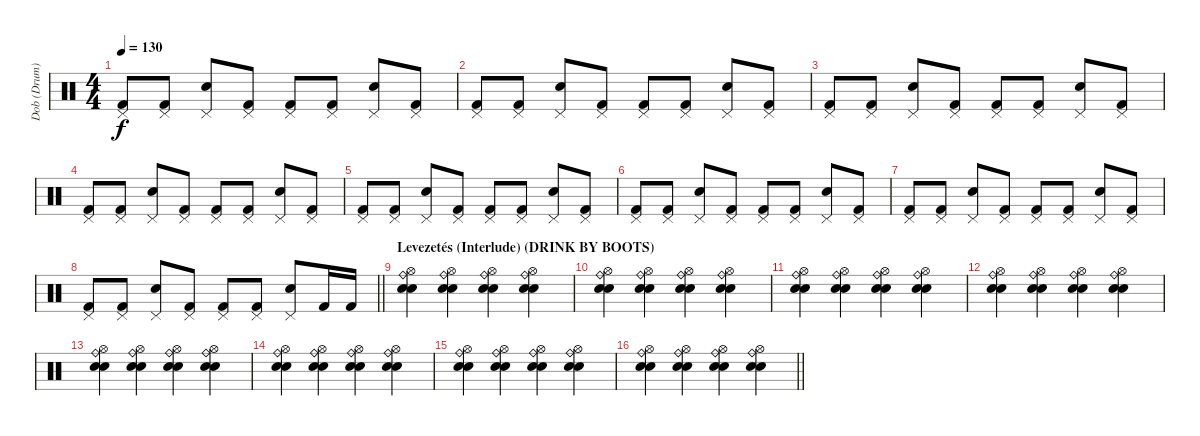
\track ("Dob (Drum)" "Dob (Drum)") {instrument percussion}
\staff {score}
\articulation defaults
\ts (4 4)
\tempo 130
\clef neutral
\ks c
("Pedal Hi-Hat (hit)" "Kick (hit) 2").8{dy f} ("Pedal Hi-Hat (hit)" "Kick (hit) 2").8 ("Pedal Hi-Hat (hit)" "Electric Snare (hit)").8 ("Pedal Hi-Hat (hit)" "Kick (hit) 2").8 ("Pedal Hi-Hat (hit)" "Kick (hit) 2").8 ("Pedal Hi-Hat (hit)" "Kick (hit) 2").8 ("Pedal Hi-Hat (hit)" "Electric Snare (hit)").8 ("Pedal Hi-Hat (hit)" "Kick (hit) 2").8 |
("Pedal Hi-Hat (hit)" "Kick (hit) 2").8 ("Pedal Hi-Hat (hit)" "Kick (hit) 2").8 ("Pedal Hi-Hat (hit)" "Electric Snare (hit)").8 ("Pedal Hi-Hat (hit)" "Kick (hit) 2").8 ("Pedal Hi-Hat (hit)" "Kick (hit) 2").8 ("Pedal Hi-Hat (hit)" "Kick (hit) 2").8 ("Pedal Hi-Hat (hit)" "Electric Snare (hit)").8 ("Pedal Hi-Hat (hit)" "Kick (hit) 2").8 |
("Pedal Hi-Hat (hit)" "Kick (hit) 2").8 ("Pedal Hi-Hat (hit)" "Kick (hit) 2").8 ("Pedal Hi-Hat (hit)" "Electric Snare (hit)").8 ("Pedal Hi-Hat (hit)" "Kick (hit) 2").8 ("Pedal Hi-Hat (hit)" "Kick (hit) 2").8 ("Pedal Hi-Hat (hit)" "Kick (hit) 2").8 ("Pedal Hi-Hat (hit)" "Electric Snare (hit)").8 ("Pedal Hi-Hat (hit)" "Kick (hit) 2").8 |
("Pedal Hi-Hat (hit)" "Kick (hit) 2").8 ("Pedal Hi-Hat (hit)" "Kick (hit) 2").8 ("Pedal Hi-Hat (hit)" "Electric Snare (hit)").8 ("Pedal Hi-Hat (hit)" "Kick (hit) 2").8 ("Pedal Hi-Hat (hit)" "Kick (hit) 2").8 ("Pedal Hi-Hat (hit)" "Kick (hit) 2").8 ("Pedal Hi-Hat (hit)" "Electric Snare (hit)").8 ("Pedal Hi-Hat (hit)" "Kick (hit) 2").8 |
("Pedal Hi-Hat (hit)" "Kick (hit) 2").8 ("Pedal Hi-Hat (hit)" "Kick (hit) 2").8 ("Pedal Hi-Hat (hit)" "Electric Snare (hit)").8 ("Pedal Hi-Hat (hit)" "Kick (hit) 2").8 ("Pedal Hi-Hat (hit)" "Kick (hit) 2").8 ("Pedal Hi-Hat (hit)" "Kick (hit) 2").8 ("Pedal Hi-Hat (hit)" "Electric Snare (hit)").8 ("Pedal Hi-Hat (hit)" "Kick (hit) 2").8 |
("Pedal Hi-Hat (hit)" "Kick (hit) 2").8 ("Pedal Hi-Hat (hit)" "Kick (hit) 2").8 ("Pedal Hi-Hat (hit)" "Electric Snare (hit)").8 ("Pedal Hi-Hat (hit)" "Kick (hit) 2").8 ("Pedal Hi-Hat (hit)" "Kick (hit) 2").8 ("Pedal Hi-Hat (hit)" "Kick (hit) 2").8 ("Pedal Hi-Hat (hit)" "Electric Snare (hit)").8 ("Pedal Hi-Hat (hit)" "Kick (hit) 2").8 |
("Pedal Hi-Hat (hit)" "Kick (hit) 2").8 ("Pedal Hi-Hat (hit)" "Kick (hit) 2").8 ("Pedal Hi-Hat (hit)" "Electric Snare (hit)").8 ("Pedal Hi-Hat (hit)" "Kick (hit) 2").8 ("Pedal Hi-Hat (hit)" "Kick (hit) 2").8 ("Pedal Hi-Hat (hit)" "Kick (hit) 2").8 ("Pedal Hi-Hat (hit)" "Electric Snare (hit)").8 ("Pedal Hi-Hat (hit)" "Kick (hit) 2").8 |
\barLineRight lightlight
("Pedal Hi-Hat (hit)" "Kick (hit) 2").8 ("Pedal Hi-Hat (hit)" "Kick (hit) 2").8 ("Pedal Hi-Hat (hit)" "Electric Snare (hit)").8 ("Pedal Hi-Hat (hit)" "Kick (hit) 2").8 ("Pedal Hi-Hat (hit)" "Kick (hit) 2").8 ("Pedal Hi-Hat (hit)" "Kick (hit) 2").8 ("Pedal Hi-Hat (hit)" "Electric Snare (hit)").8 "Kick (hit) 2".16 "Kick (hit) 2".16 |
\section ("" "Levezetés (Interlude) (DRINK BY BOOTS)")
("Ride (bell)" "Hi-Hat (open)" "Hand Clap (hit)" "Snare (hit) 2").4 ("Ride (bell)" "Hi-Hat (open)" "Hand Clap (hit)" "Snare (hit) 2").4 ("Ride (bell)" "Hi-Hat (open)" "Hand Clap (hit)" "Snare (hit) 2").4 ("Ride (bell)" "Hi-Hat (open)" "Hand Clap (hit)" "Snare (hit) 2").4 |
("Ride (bell)" "Hi-Hat (open)" "Hand Clap (hit)" "Snare (hit) 2").4 ("Ride (bell)" "Hi-Hat (open)" "Hand Clap (hit)" "Snare (hit) 2").4 ("Ride (bell)" "Hi-Hat (open)" "Hand Clap (hit)" "Snare (hit) 2").4 ("Ride (bell)" "Hi-Hat (open)" "Hand Clap (hit)" "Snare (hit) 2").4 |
("Ride (bell)" "Hi-Hat (open)" "Hand Clap (hit)" "Snare (hit) 2").4 ("Ride (bell)" "Hi-Hat (open)" "Hand Clap (hit)" "Snare (hit) 2").4 ("Ride (bell)" "Hi-Hat (open)" "Hand Clap (hit)" "Snare (hit) 2").4 ("Ride (bell)" "Hi-Hat (open)" "Hand Clap (hit)" "Snare (hit) 2").4 |
("Ride (bell)" "Hi-Hat (open)" "Hand Clap (hit)" "Snare (hit) 2").4 ("Ride (bell)" "Hi-Hat (open)" "Hand Clap (hit)" "Snare (hit) 2").4 ("Ride (bell)" "Hi-Hat (open)" "Hand Clap (hit)" "Snare (hit) 2").4 ("Ride (bell)" "Hi-Hat (open)" "Hand Clap (hit)" "Snare (hit) 2").4 |
("Ride (bell)" "Hi-Hat (open)" "Hand Clap (hit)" "Snare (hit) 2").4 ("Ride (bell)" "Hi-Hat (open)" "Hand Clap (hit)" "Snare (hit) 2").4 ("Ride (bell)" "Hi-Hat (open)" "Hand Clap (hit)" "Snare (hit) 2").4 ("Ride (bell)" "Hi-Hat (open)" "Hand Clap (hit)" "Snare (hit) 2").4 |
("Ride (bell)" "Hi-Hat (open)" "Hand Clap (hit)" "Snare (hit) 2").4 ("Ride (bell)" "Hi-Hat (open)" "Hand Clap (hit)" "Snare (hit) 2").4 ("Ride (bell)" "Hi-Hat (open)" "Hand Clap (hit)" "Snare (hit) 2").4 ("Ride (bell)" "Hi-Hat (open)" "Hand Clap (hit)" "Snare (hit) 2").4 |
("Ride (bell)" "Hi-Hat (open)" "Hand Clap (hit)" "Snare (hit) 2").4 ("Ride (bell)" "Hi-Hat (open)" "Hand Clap (hit)" "Snare (hit) 2").4 ("Ride (bell)" "Hi-Hat (open)" "Hand Clap (hit)" "Snare (hit) 2").4 ("Ride (bell)" "Hi-Hat (open)" "Hand Clap (hit)" "Snare (hit) 2").4 |
\barLineRight lightlight
("Ride (bell)" "Hi-Hat (open)" "Hand Clap (hit)" "Snare (hit) 2").4 ("Ride (bell)" "Hi-Hat (open)" "Hand Clap (hit)" "Snare (hit) 2").4 ("Ride (bell)" "Hi-Hat (open)" "Hand Clap (hit)" "Snare (hit) 2").4 ("Ride (bell)" "Hi-Hat (open)" "Hand Clap (hit)" "Snare (hit) 2").4
